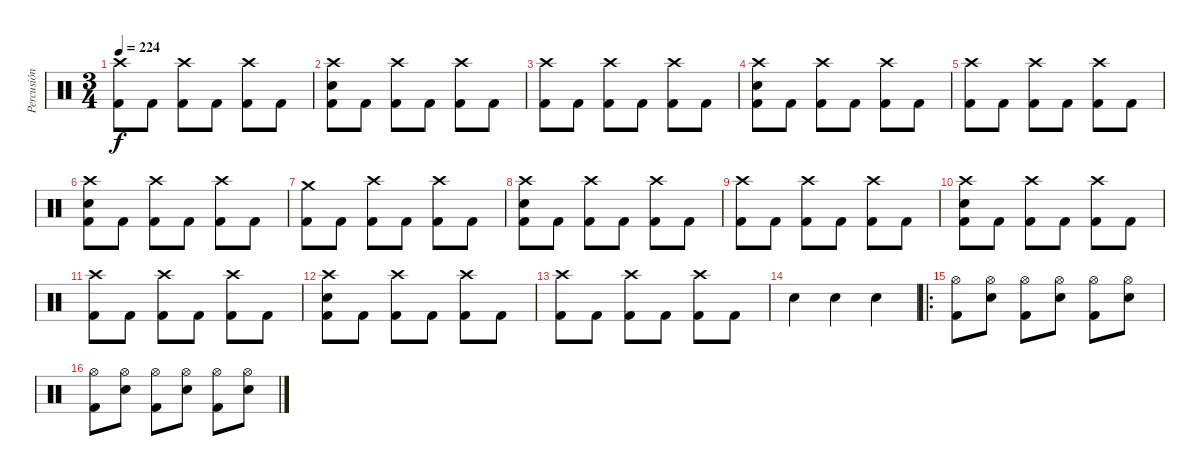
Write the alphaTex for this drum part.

\track ("Percusión" "Percusión") {instrument percussion}
\staff {score}
\articulation defaults
\ts (3 4)
\tempo 224
\clef neutral
\ks c
("Crash high (hit)" "Kick (hit) 2").8{dy f} "Kick (hit) 2".8 ("Crash high (hit)" "Kick (hit) 2").8 "Kick (hit) 2".8 ("Crash high (hit)" "Kick (hit) 2").8 "Kick (hit) 2".8 |
("Crash high (hit)" "Electric Snare (hit)" "Kick (hit) 2").8 "Kick (hit) 2".8 ("Crash high (hit)" "Kick (hit) 2").8 "Kick (hit) 2".8 ("Crash high (hit)" "Kick (hit) 2").8 "Kick (hit) 2".8 |
("Crash high (hit)" "Kick (hit) 2").8 "Kick (hit) 2".8 ("Crash high (hit)" "Kick (hit) 2").8 "Kick (hit) 2".8 ("Crash high (hit)" "Kick (hit) 2").8 "Kick (hit) 2".8 |
("Crash high (hit)" "Electric Snare (hit)" "Kick (hit) 2").8 "Kick (hit) 2".8 ("Crash high (hit)" "Kick (hit) 2").8 "Kick (hit) 2".8 ("Crash high (hit)" "Kick (hit) 2").8 "Kick (hit) 2".8 |
("Crash high (hit)" "Kick (hit) 2").8 "Kick (hit) 2".8 ("Crash high (hit)" "Kick (hit) 2").8 "Kick (hit) 2".8 ("Crash high (hit)" "Kick (hit) 2").8 "Kick (hit) 2".8 |
("Crash high (hit)" "Electric Snare (hit)" "Kick (hit) 2").8 "Kick (hit) 2".8 ("Crash high (hit)" "Kick (hit) 2").8 "Kick (hit) 2".8 ("Crash high (hit)" "Kick (hit) 2").8 "Kick (hit) 2".8 |
("Crash medium (hit)" "Kick (hit) 2").8 "Kick (hit) 2".8 ("Crash high (hit)" "Kick (hit) 2").8 "Kick (hit) 2".8 ("Crash high (hit)" "Kick (hit) 2").8 "Kick (hit) 2".8 |
("Crash high (hit)" "Electric Snare (hit)" "Kick (hit) 2").8 "Kick (hit) 2".8 ("Crash high (hit)" "Kick (hit) 2").8 "Kick (hit) 2".8 ("Crash high (hit)" "Kick (hit) 2").8 "Kick (hit) 2".8 |
("Crash high (hit)" "Kick (hit) 2").8 "Kick (hit) 2".8 ("Crash high (hit)" "Kick (hit) 2").8 "Kick (hit) 2".8 ("Crash high (hit)" "Kick (hit) 2").8 "Kick (hit) 2".8 |
("Crash high (hit)" "Electric Snare (hit)" "Kick (hit) 2").8 "Kick (hit) 2".8 ("Crash high (hit)" "Kick (hit) 2").8 "Kick (hit) 2".8 ("Crash high (hit)" "Kick (hit) 2").8 "Kick (hit) 2".8 |
("Crash high (hit)" "Kick (hit) 2").8 "Kick (hit) 2".8 ("Crash high (hit)" "Kick (hit) 2").8 "Kick (hit) 2".8 ("Crash high (hit)" "Kick (hit) 2").8 "Kick (hit) 2".8 |
("Crash high (hit)" "Electric Snare (hit)" "Kick (hit) 2").8 "Kick (hit) 2".8 ("Crash high (hit)" "Kick (hit) 2").8 "Kick (hit) 2".8 ("Crash high (hit)" "Kick (hit) 2").8 "Kick (hit) 2".8 |
("Crash high (hit)" "Kick (hit) 2").8 "Kick (hit) 2".8 ("Crash high (hit)" "Kick (hit) 2").8 "Kick (hit) 2".8 ("Crash high (hit)" "Kick (hit) 2").8 "Kick (hit) 2".8 |
"Electric Snare (hit)".4 "Electric Snare (hit)".4 "Electric Snare (hit)".4 |
\ro
("Hi-Hat (open)" "Kick (hit) 2").8 ("Hi-Hat (open)" "Electric Snare (hit)").8 ("Hi-Hat (open)" "Kick (hit) 2").8 ("Hi-Hat (open)" "Electric Snare (hit)").8 ("Hi-Hat (open)" "Kick (hit) 2").8 ("Hi-Hat (open)" "Electric Snare (hit)").8 |
("Hi-Hat (open)" "Kick (hit) 2").8 ("Hi-Hat (open)" "Electric Snare (hit)").8 ("Hi-Hat (open)" "Kick (hit) 2").8 ("Hi-Hat (open)" "Electric Snare (hit)").8 ("Hi-Hat (open)" "Kick (hit) 2").8 ("Hi-Hat (open)" "Electric Snare (hit)").8
